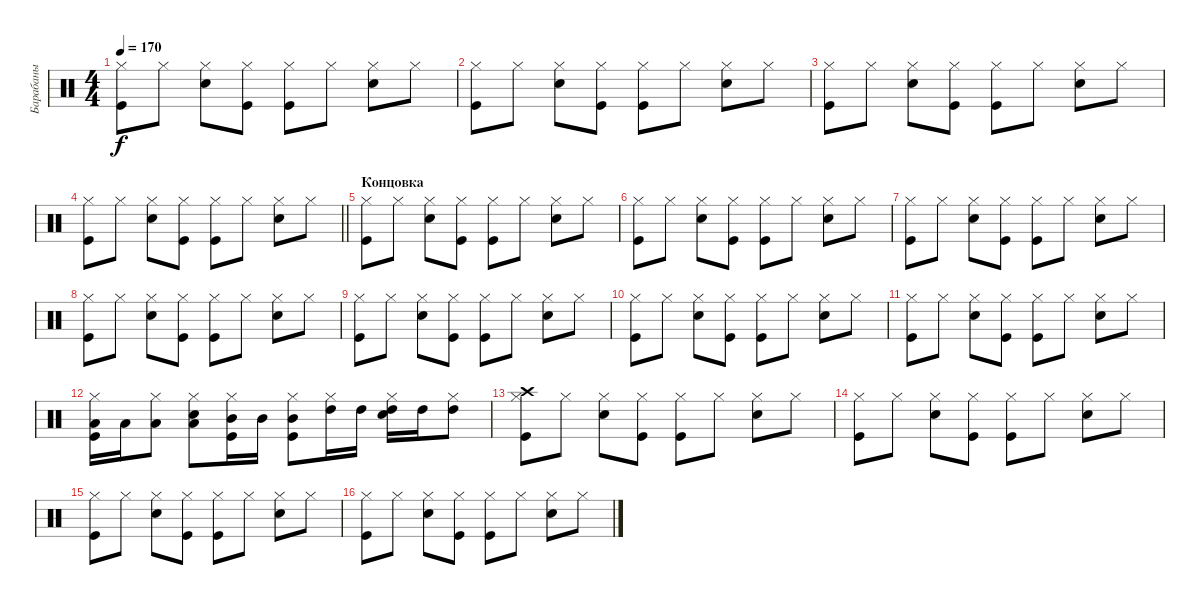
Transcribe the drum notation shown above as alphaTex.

\track ("Барабаны" "Барабаны") {instrument percussion}
\staff {score}
\articulation defaults
\ts (4 4)
\tempo 170
\clef neutral
\ks c
("Kick (hit)" "Hi-Hat (closed)").8{dy f} "Hi-Hat (closed)".8 ("Snare (hit) 2" "Hi-Hat (closed)").8 ("Kick (hit)" "Hi-Hat (closed)").8 ("Kick (hit)" "Hi-Hat (closed)").8 "Hi-Hat (closed)".8 ("Snare (hit) 2" "Hi-Hat (closed)").8 "Hi-Hat (closed)".8 |
("Kick (hit)" "Hi-Hat (closed)").8 "Hi-Hat (closed)".8 ("Snare (hit) 2" "Hi-Hat (closed)").8 ("Kick (hit)" "Hi-Hat (closed)").8 ("Kick (hit)" "Hi-Hat (closed)").8 "Hi-Hat (closed)".8 ("Snare (hit) 2" "Hi-Hat (closed)").8 "Hi-Hat (closed)".8 |
("Kick (hit)" "Hi-Hat (closed)").8 "Hi-Hat (closed)".8 ("Snare (hit) 2" "Hi-Hat (closed)").8 ("Kick (hit)" "Hi-Hat (closed)").8 ("Kick (hit)" "Hi-Hat (closed)").8 "Hi-Hat (closed)".8 ("Snare (hit) 2" "Hi-Hat (closed)").8 "Hi-Hat (closed)".8 |
\barLineRight lightlight
("Kick (hit)" "Hi-Hat (closed)").8 "Hi-Hat (closed)".8 ("Snare (hit) 2" "Hi-Hat (closed)").8 ("Kick (hit)" "Hi-Hat (closed)").8 ("Kick (hit)" "Hi-Hat (closed)").8 "Hi-Hat (closed)".8 ("Snare (hit) 2" "Hi-Hat (closed)").8 "Hi-Hat (closed)".8 |
\section ("" "Концовка")
("Kick (hit)" "Hi-Hat (closed)").8 "Hi-Hat (closed)".8 ("Snare (hit) 2" "Hi-Hat (closed)").8 ("Kick (hit)" "Hi-Hat (closed)").8 ("Kick (hit)" "Hi-Hat (closed)").8 "Hi-Hat (closed)".8 ("Snare (hit) 2" "Hi-Hat (closed)").8 "Hi-Hat (closed)".8 |
("Kick (hit)" "Hi-Hat (closed)").8 "Hi-Hat (closed)".8 ("Snare (hit) 2" "Hi-Hat (closed)").8 ("Kick (hit)" "Hi-Hat (closed)").8 ("Kick (hit)" "Hi-Hat (closed)").8 "Hi-Hat (closed)".8 ("Snare (hit) 2" "Hi-Hat (closed)").8 "Hi-Hat (closed)".8 |
("Kick (hit)" "Hi-Hat (closed)").8 "Hi-Hat (closed)".8 ("Snare (hit) 2" "Hi-Hat (closed)").8 ("Kick (hit)" "Hi-Hat (closed)").8 ("Kick (hit)" "Hi-Hat (closed)").8 "Hi-Hat (closed)".8 ("Snare (hit) 2" "Hi-Hat (closed)").8 "Hi-Hat (closed)".8 |
("Kick (hit)" "Hi-Hat (closed)").8 "Hi-Hat (closed)".8 ("Snare (hit) 2" "Hi-Hat (closed)").8 ("Kick (hit)" "Hi-Hat (closed)").8 ("Kick (hit)" "Hi-Hat (closed)").8 "Hi-Hat (closed)".8 ("Snare (hit) 2" "Hi-Hat (closed)").8 "Hi-Hat (closed)".8 |
("Kick (hit)" "Hi-Hat (closed)").8 "Hi-Hat (closed)".8 ("Snare (hit) 2" "Hi-Hat (closed)").8 ("Kick (hit)" "Hi-Hat (closed)").8 ("Kick (hit)" "Hi-Hat (closed)").8 "Hi-Hat (closed)".8 ("Snare (hit) 2" "Hi-Hat (closed)").8 "Hi-Hat (closed)".8 |
("Kick (hit)" "Hi-Hat (closed)").8 "Hi-Hat (closed)".8 ("Snare (hit) 2" "Hi-Hat (closed)").8 ("Kick (hit)" "Hi-Hat (closed)").8 ("Kick (hit)" "Hi-Hat (closed)").8 "Hi-Hat (closed)".8 ("Snare (hit) 2" "Hi-Hat (closed)").8 "Hi-Hat (closed)".8 |
("Kick (hit)" "Hi-Hat (closed)").8 "Hi-Hat (closed)".8 ("Snare (hit) 2" "Hi-Hat (closed)").8 ("Kick (hit)" "Hi-Hat (closed)").8 ("Kick (hit)" "Hi-Hat (closed)").8 "Hi-Hat (closed)".8 ("Snare (hit) 2" "Hi-Hat (closed)").8 "Hi-Hat (closed)".8 |
("Kick (hit)" "Hi-Hat (closed)" "Low Floor Tom (hit)").16 "Low Floor Tom (hit)".16 ("Hi-Hat (closed)" "Low Floor Tom (hit)").8 ("Snare (hit) 2" "Hi-Hat (closed)" "Low Floor Tom (hit)").8 ("Kick (hit)" "Hi-Hat (closed)" "Mid Tom (hit)").16 "Mid Tom (hit)".16 ("Kick (hit)" "Hi-Hat (closed)" "Mid Tom (hit)").8 ("Hi-Hat (closed)" "High Tom (hit)").16 "High Tom (hit)".16 ("Snare (hit) 2" "Hi-Hat (closed)" "High Tom (hit)").16 "High Tom (hit)".16 ("Hi-Hat (closed)" "High Tom (hit)").8 |
("Kick (hit)" "Hi-Hat (closed)" "Crash high (hit)").8 "Hi-Hat (closed)".8 ("Snare (hit) 2" "Hi-Hat (closed)").8 ("Kick (hit)" "Hi-Hat (closed)").8 ("Kick (hit)" "Hi-Hat (closed)").8 "Hi-Hat (closed)".8 ("Snare (hit) 2" "Hi-Hat (closed)").8 "Hi-Hat (closed)".8 |
("Kick (hit)" "Hi-Hat (closed)").8 "Hi-Hat (closed)".8 ("Snare (hit) 2" "Hi-Hat (closed)").8 ("Kick (hit)" "Hi-Hat (closed)").8 ("Kick (hit)" "Hi-Hat (closed)").8 "Hi-Hat (closed)".8 ("Snare (hit) 2" "Hi-Hat (closed)").8 "Hi-Hat (closed)".8 |
("Kick (hit)" "Hi-Hat (closed)").8 "Hi-Hat (closed)".8 ("Snare (hit) 2" "Hi-Hat (closed)").8 ("Kick (hit)" "Hi-Hat (closed)").8 ("Kick (hit)" "Hi-Hat (closed)").8 "Hi-Hat (closed)".8 ("Snare (hit) 2" "Hi-Hat (closed)").8 "Hi-Hat (closed)".8 |
("Kick (hit)" "Hi-Hat (closed)").8 "Hi-Hat (closed)".8 ("Snare (hit) 2" "Hi-Hat (closed)").8 ("Kick (hit)" "Hi-Hat (closed)").8 ("Kick (hit)" "Hi-Hat (closed)").8 "Hi-Hat (closed)".8 ("Snare (hit) 2" "Hi-Hat (closed)").8 "Hi-Hat (closed)".8
